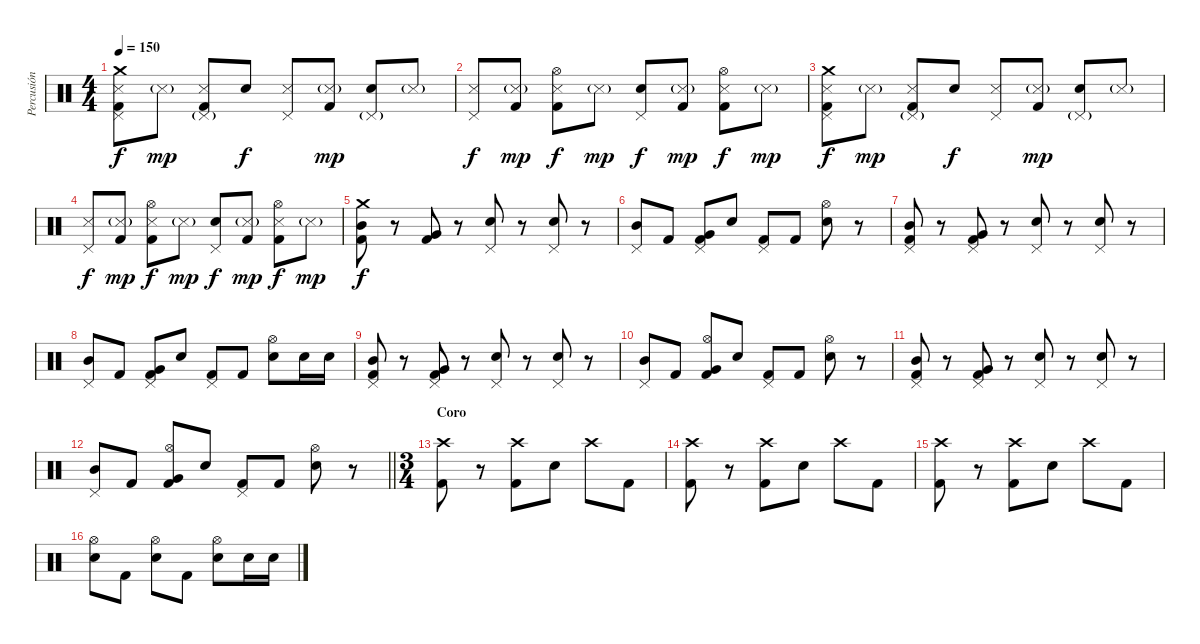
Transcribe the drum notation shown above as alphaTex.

\track ("Percusión" "Percusión") {instrument percussion}
\staff {score}
\articulation defaults
\ts (4 4)
\tempo 150
\clef neutral
\ks c
("Crash medium (hit)" "Pedal Hi-Hat (hit)" "Snare (side stick) 3" "Kick (hit) 2").8{dy f} "Snare (side stick) 3"{g}.8{dy mp} ("Pedal Hi-Hat (hit)"{g} "Snare (side stick) 3" "Kick (hit) 2").8 "Electric Snare (hit)".8{dy f} ("Pedal Hi-Hat (hit)" "Snare (side stick) 3").8 ("Snare (side stick) 3"{g} "Kick (hit) 2").8{dy mp} ("Pedal Hi-Hat (hit)"{g} "Electric Snare (hit)").8 "Snare (side stick) 3"{g}.8 |
("Pedal Hi-Hat (hit)" "Snare (side stick) 3").8{dy f} ("Snare (side stick) 3"{g} "Kick (hit) 2").8{dy mp} ("Hi-Hat (open)" "Snare (side stick) 3" "Kick (hit) 2").8{dy f} "Snare (side stick) 3"{g}.8{dy mp} ("Pedal Hi-Hat (hit)" "Electric Snare (hit)").8{dy f} ("Snare (side stick) 3"{g} "Kick (hit) 2").8{dy mp} ("Hi-Hat (open)" "Snare (side stick) 3" "Kick (hit) 2").8{dy f} "Snare (side stick) 3"{g}.8{dy mp} |
("Crash medium (hit)" "Pedal Hi-Hat (hit)" "Snare (side stick) 3" "Kick (hit) 2").8{dy f} "Snare (side stick) 3"{g}.8{dy mp} ("Pedal Hi-Hat (hit)"{g} "Snare (side stick) 3" "Kick (hit) 2").8 "Electric Snare (hit)".8{dy f} ("Pedal Hi-Hat (hit)" "Snare (side stick) 3").8 ("Snare (side stick) 3"{g} "Kick (hit) 2").8{dy mp} ("Pedal Hi-Hat (hit)"{g} "Electric Snare (hit)").8 "Snare (side stick) 3"{g}.8 |
("Pedal Hi-Hat (hit)" "Snare (side stick) 3").8{dy f} ("Snare (side stick) 3"{g} "Kick (hit) 2").8{dy mp} ("Hi-Hat (open)" "Snare (side stick) 3" "Kick (hit) 2").8{dy f} "Snare (side stick) 3"{g}.8{dy mp} ("Pedal Hi-Hat (hit)" "Electric Snare (hit)").8{dy f} ("Snare (side stick) 3"{g} "Kick (hit) 2").8{dy mp} ("Hi-Hat (open)" "Snare (side stick) 3" "Kick (hit) 2").8{dy f} "Snare (side stick) 3"{g}.8{dy mp} |
("Crash medium (hit)" "Mid Tom (hit)" "Kick (hit) 2").8{dy f} r.8 ("Very Low Tom (hit)" "Kick (hit) 2").8 r.8 ("Pedal Hi-Hat (hit)" "Electric Snare (hit)").8 r.8 ("Pedal Hi-Hat (hit)" "Electric Snare (hit)").8 r.8 |
("Pedal Hi-Hat (hit)" "Mid Tom (hit)").8 "Kick (hit) 2".8 ("Pedal Hi-Hat (hit)" "Very Low Tom (hit)" "Kick (hit) 2").8 "Electric Snare (hit)".8 ("Pedal Hi-Hat (hit)" "Kick (hit) 2").8 "Kick (hit) 2".8 ("Hi-Hat (open)" "Electric Snare (hit)").8 r.8 |
("Pedal Hi-Hat (hit)" "Mid Tom (hit)" "Kick (hit) 2").8 r.8 ("Pedal Hi-Hat (hit)" "Very Low Tom (hit)" "Kick (hit) 2").8 r.8 ("Pedal Hi-Hat (hit)" "Electric Snare (hit)").8 r.8 ("Pedal Hi-Hat (hit)" "Electric Snare (hit)").8 r.8 |
("Pedal Hi-Hat (hit)" "Mid Tom (hit)").8 "Kick (hit) 2".8 ("Pedal Hi-Hat (hit)" "Very Low Tom (hit)" "Kick (hit) 2").8 "Electric Snare (hit)".8 ("Pedal Hi-Hat (hit)" "Kick (hit) 2").8 "Kick (hit) 2".8 ("Hi-Hat (open)" "Electric Snare (hit)").8 "Electric Snare (hit)".16 "Electric Snare (hit)".16 |
("Pedal Hi-Hat (hit)" "Mid Tom (hit)" "Kick (hit) 2").8 r.8 ("Pedal Hi-Hat (hit)" "Very Low Tom (hit)" "Kick (hit) 2").8 r.8 ("Pedal Hi-Hat (hit)" "Electric Snare (hit)").8 r.8 ("Pedal Hi-Hat (hit)" "Electric Snare (hit)").8 r.8 |
("Pedal Hi-Hat (hit)" "Mid Tom (hit)").8 "Kick (hit) 2".8 ("Hi-Hat (open)" "Very Low Tom (hit)" "Kick (hit) 2").8 "Electric Snare (hit)".8 ("Pedal Hi-Hat (hit)" "Kick (hit) 2").8 "Kick (hit) 2".8 ("Hi-Hat (open)" "Electric Snare (hit)").8 r.8 |
("Pedal Hi-Hat (hit)" "Mid Tom (hit)" "Kick (hit) 2").8 r.8 ("Pedal Hi-Hat (hit)" "Very Low Tom (hit)" "Kick (hit) 2").8 r.8 ("Pedal Hi-Hat (hit)" "Electric Snare (hit)").8 r.8 ("Pedal Hi-Hat (hit)" "Electric Snare (hit)").8 r.8 |
\barLineRight lightlight
("Pedal Hi-Hat (hit)" "Mid Tom (hit)").8 "Kick (hit) 2".8 ("Hi-Hat (open)" "Very Low Tom (hit)" "Kick (hit) 2").8 "Electric Snare (hit)".8 ("Pedal Hi-Hat (hit)" "Kick (hit) 2").8 "Kick (hit) 2".8 ("Hi-Hat (open)" "Electric Snare (hit)").8 r.8 |
\ts (3 4)
\section ("" "Coro")
("Crash high (hit)" "Kick (hit) 2").8 r.8 ("Crash high (hit)" "Kick (hit) 2").8 "Electric Snare (hit)".8 "Crash high (hit)".8 "Kick (hit) 2".8 |
("Crash high (hit)" "Kick (hit) 2").8 r.8 ("Crash high (hit)" "Kick (hit) 2").8 "Electric Snare (hit)".8 "Crash high (hit)".8 "Kick (hit) 2".8 |
("Crash high (hit)" "Kick (hit) 2").8 r.8 ("Crash high (hit)" "Kick (hit) 2").8 "Electric Snare (hit)".8 "Crash high (hit)".8 "Kick (hit) 2".8 |
("Hi-Hat (open)" "Electric Snare (hit)").8 "Kick (hit) 2".8 ("Hi-Hat (open)" "Electric Snare (hit)").8 "Kick (hit) 2".8 ("Hi-Hat (open)" "Electric Snare (hit)").8 "Electric Snare (hit)".16 "Electric Snare (hit)".16
